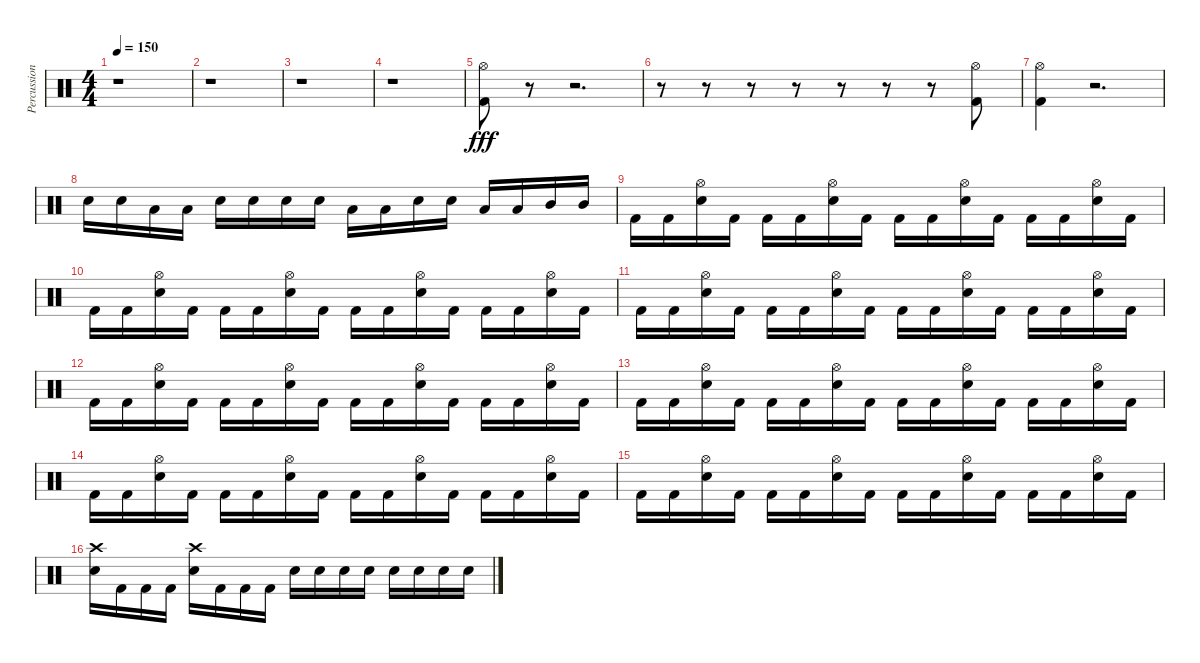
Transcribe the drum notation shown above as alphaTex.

\track ("Percussion" "Percussion") {instrument percussion}
\staff {score}
\articulation defaults
\ts (4 4)
\tempo 150
\clef neutral
\ks c
r.1{dy fff} |
r.1 |
r.1 |
r.1 |
("Kick (hit) 2" "Hi-Hat (open)").8 r.8 r.2{d} |
r.8 r.8 r.8 r.8 r.8 r.8 r.8 ("Kick (hit) 2" "Hi-Hat (open)").8 |
("Kick (hit) 2" "Hi-Hat (open)").4 r.2{d} |
"Snare (hit) 2".16 "Snare (hit) 2".16 "Low Tom (hit)".16 "Low Tom (hit)".16 "Snare (hit) 2".16 "Snare (hit) 2".16 "Snare (hit) 2".16 "Snare (hit) 2".16 "Low Tom (hit)".16 "Low Tom (hit)".16 "Snare (hit) 2".16 "Snare (hit) 2".16 "Low Tom (hit)".16 "Low Tom (hit)".16 "Mid Tom (hit)".16 "Mid Tom (hit)".16 |
"Kick (hit) 2".16 "Kick (hit) 2".16 ("Snare (hit) 2" "Hi-Hat (open)").16 "Kick (hit) 2".16 "Kick (hit) 2".16 "Kick (hit) 2".16 ("Snare (hit) 2" "Hi-Hat (open)").16 "Kick (hit) 2".16 "Kick (hit) 2".16 "Kick (hit) 2".16 ("Snare (hit) 2" "Hi-Hat (open)").16 "Kick (hit) 2".16 "Kick (hit) 2".16 "Kick (hit) 2".16 ("Snare (hit) 2" "Hi-Hat (open)").16 "Kick (hit) 2".16 |
"Kick (hit) 2".16 "Kick (hit) 2".16 ("Snare (hit) 2" "Hi-Hat (open)").16 "Kick (hit) 2".16 "Kick (hit) 2".16 "Kick (hit) 2".16 ("Snare (hit) 2" "Hi-Hat (open)").16 "Kick (hit) 2".16 "Kick (hit) 2".16 "Kick (hit) 2".16 ("Snare (hit) 2" "Hi-Hat (open)").16 "Kick (hit) 2".16 "Kick (hit) 2".16 "Kick (hit) 2".16 ("Snare (hit) 2" "Hi-Hat (open)").16 "Kick (hit) 2".16 |
"Kick (hit) 2".16 "Kick (hit) 2".16 ("Snare (hit) 2" "Hi-Hat (open)").16 "Kick (hit) 2".16 "Kick (hit) 2".16 "Kick (hit) 2".16 ("Snare (hit) 2" "Hi-Hat (open)").16 "Kick (hit) 2".16 "Kick (hit) 2".16 "Kick (hit) 2".16 ("Snare (hit) 2" "Hi-Hat (open)").16 "Kick (hit) 2".16 "Kick (hit) 2".16 "Kick (hit) 2".16 ("Snare (hit) 2" "Hi-Hat (open)").16 "Kick (hit) 2".16 |
"Kick (hit) 2".16 "Kick (hit) 2".16 ("Snare (hit) 2" "Hi-Hat (open)").16 "Kick (hit) 2".16 "Kick (hit) 2".16 "Kick (hit) 2".16 ("Snare (hit) 2" "Hi-Hat (open)").16 "Kick (hit) 2".16 "Kick (hit) 2".16 "Kick (hit) 2".16 ("Snare (hit) 2" "Hi-Hat (open)").16 "Kick (hit) 2".16 "Kick (hit) 2".16 "Kick (hit) 2".16 ("Snare (hit) 2" "Hi-Hat (open)").16 "Kick (hit) 2".16 |
"Kick (hit) 2".16 "Kick (hit) 2".16 ("Snare (hit) 2" "Hi-Hat (open)").16 "Kick (hit) 2".16 "Kick (hit) 2".16 "Kick (hit) 2".16 ("Snare (hit) 2" "Hi-Hat (open)").16 "Kick (hit) 2".16 "Kick (hit) 2".16 "Kick (hit) 2".16 ("Snare (hit) 2" "Hi-Hat (open)").16 "Kick (hit) 2".16 "Kick (hit) 2".16 "Kick (hit) 2".16 ("Snare (hit) 2" "Hi-Hat (open)").16 "Kick (hit) 2".16 |
"Kick (hit) 2".16 "Kick (hit) 2".16 ("Snare (hit) 2" "Hi-Hat (open)").16 "Kick (hit) 2".16 "Kick (hit) 2".16 "Kick (hit) 2".16 ("Snare (hit) 2" "Hi-Hat (open)").16 "Kick (hit) 2".16 "Kick (hit) 2".16 "Kick (hit) 2".16 ("Snare (hit) 2" "Hi-Hat (open)").16 "Kick (hit) 2".16 "Kick (hit) 2".16 "Kick (hit) 2".16 ("Snare (hit) 2" "Hi-Hat (open)").16 "Kick (hit) 2".16 |
"Kick (hit) 2".16 "Kick (hit) 2".16 ("Snare (hit) 2" "Hi-Hat (open)").16 "Kick (hit) 2".16 "Kick (hit) 2".16 "Kick (hit) 2".16 ("Snare (hit) 2" "Hi-Hat (open)").16 "Kick (hit) 2".16 "Kick (hit) 2".16 "Kick (hit) 2".16 ("Snare (hit) 2" "Hi-Hat (open)").16 "Kick (hit) 2".16 "Kick (hit) 2".16 "Kick (hit) 2".16 ("Snare (hit) 2" "Hi-Hat (open)").16 "Kick (hit) 2".16 |
("Snare (hit) 2" "Crash high (hit)").16 "Kick (hit) 2".16 "Kick (hit) 2".16 "Kick (hit) 2".16 ("Snare (hit) 2" "Crash high (hit)").16 "Kick (hit) 2".16 "Kick (hit) 2".16 "Kick (hit) 2".16 "Snare (hit) 2".16 "Snare (hit) 2".16 "Snare (hit) 2".16 "Snare (hit) 2".16 "Snare (hit) 2".16 "Snare (hit) 2".16 "Snare (hit) 2".16 "Snare (hit) 2".16
